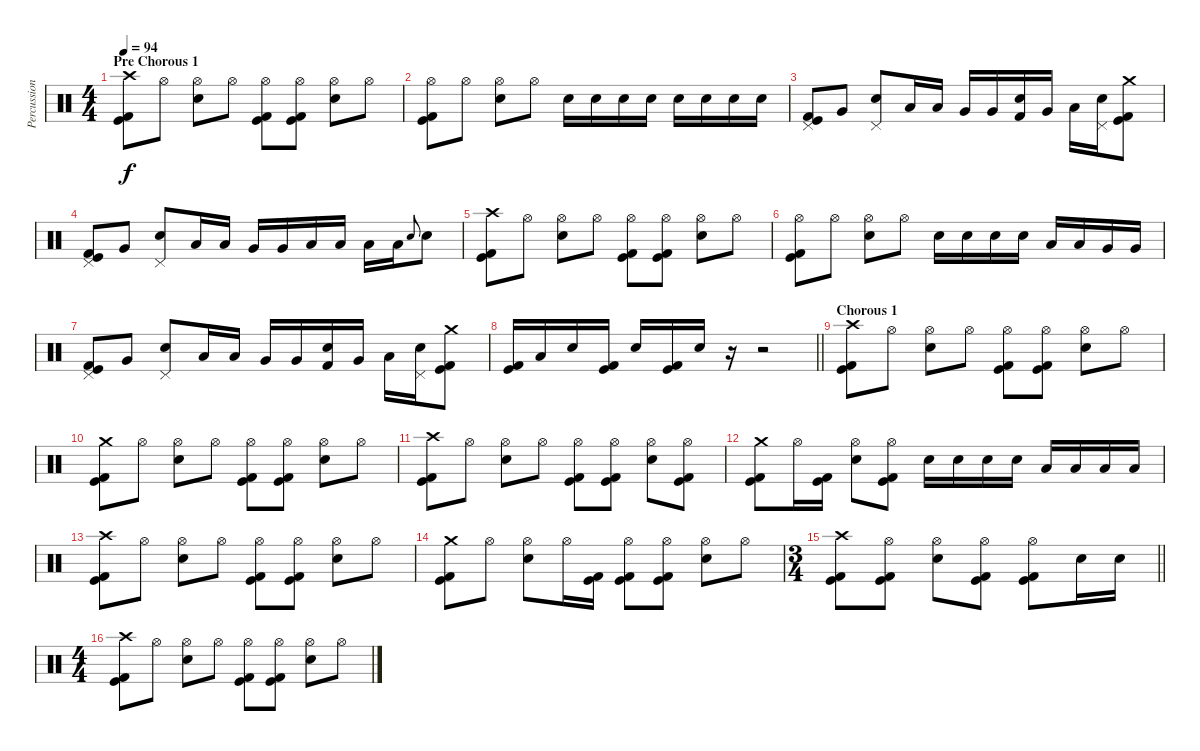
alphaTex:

\track ("Percussion" "Percussion") {instrument percussion}
\staff {score}
\articulation defaults
\ts (4 4)
\section ("" "Pre Chorous 1")
\tempo 94
\clef neutral
\ks c
("Crash high (hit)" "Kick (hit)" "Kick (hit) 2").8{dy f} "Hi-Hat (open)".8 ("Hi-Hat (open)" "Electric Snare (hit)").8 "Hi-Hat (open)".8 ("Hi-Hat (open)" "Kick (hit)" "Kick (hit) 2").8 ("Hi-Hat (open)" "Kick (hit)" "Kick (hit) 2").8 ("Hi-Hat (open)" "Electric Snare (hit)").8 "Hi-Hat (open)".8 |
("Hi-Hat (open)" "Kick (hit)" "Kick (hit) 2").8 "Hi-Hat (open)".8 ("Hi-Hat (open)" "Electric Snare (hit)").8 "Hi-Hat (open)".8 "Electric Snare (hit)".16 "Electric Snare (hit)".16 "Electric Snare (hit)".16 "Electric Snare (hit)".16 "Electric Snare (hit)".16 "Electric Snare (hit)".16 "Electric Snare (hit)".16 "Electric Snare (hit)".16 |
("Pedal Hi-Hat (hit)" "Kick (hit)" "Kick (hit) 2").8 "Very Low Tom (hit)".8 ("Pedal Hi-Hat (hit)" "Electric Snare (hit)").8 "Low Tom (hit)".16 "Low Tom (hit)".16 "Very Low Tom (hit)".16 "Very Low Tom (hit)".16 ("Electric Snare (hit)" "Kick (hit) 2").16 "Very Low Tom (hit)".16 "Low Floor Tom (hit)".16 ("Pedal Hi-Hat (hit)" "Electric Snare (hit)").16 ("Crash medium (hit)" "Kick (hit)" "Kick (hit) 2").8 |
("Pedal Hi-Hat (hit)" "Kick (hit)" "Kick (hit) 2").8 "Very Low Tom (hit)".8 ("Pedal Hi-Hat (hit)" "Electric Snare (hit)").8 "Low Tom (hit)".16 "Low Tom (hit)".16 "Very Low Tom (hit)".16 "Very Low Tom (hit)".16 "Low Floor Tom (hit)".16 "Low Floor Tom (hit)".16 "Low Tom (hit)".16 "Low Tom (hit)".16 "Electric Snare (hit)".8{gr onbeat} "Electric Snare (hit)".8 |
("Crash high (hit)" "Kick (hit)" "Kick (hit) 2").8 "Hi-Hat (open)".8 ("Hi-Hat (open)" "Electric Snare (hit)").8 "Hi-Hat (open)".8 ("Hi-Hat (open)" "Kick (hit)" "Kick (hit) 2").8 ("Hi-Hat (open)" "Kick (hit)" "Kick (hit) 2").8 ("Hi-Hat (open)" "Electric Snare (hit)").8 "Hi-Hat (open)".8 |
("Hi-Hat (open)" "Kick (hit)" "Kick (hit) 2").8 "Hi-Hat (open)".8 ("Hi-Hat (open)" "Electric Snare (hit)").8 "Hi-Hat (open)".8 "Electric Snare (hit)".16 "Electric Snare (hit)".16 "Electric Snare (hit)".16 "Electric Snare (hit)".16 "Low Tom (hit)".16 "Low Tom (hit)".16 "Very Low Tom (hit)".16 "Very Low Tom (hit)".16 |
("Pedal Hi-Hat (hit)" "Kick (hit)" "Kick (hit) 2").8 "Very Low Tom (hit)".8 ("Pedal Hi-Hat (hit)" "Electric Snare (hit)").8 "Low Tom (hit)".16 "Low Tom (hit)".16 "Very Low Tom (hit)".16 "Very Low Tom (hit)".16 ("Electric Snare (hit)" "Kick (hit) 2").16 "Very Low Tom (hit)".16 "Low Floor Tom (hit)".16 ("Pedal Hi-Hat (hit)" "Electric Snare (hit)").16 ("Crash medium (hit)" "Kick (hit)" "Kick (hit) 2").8 |
\barLineRight lightlight
("Kick (hit)" "Kick (hit) 2").16 "Low Tom (hit)".16 "Electric Snare (hit)".16 ("Kick (hit)" "Kick (hit) 2").16 "Electric Snare (hit)".16 ("Kick (hit)" "Kick (hit) 2").16 "Electric Snare (hit)".16 r.16 r.2 |
\section ("" "Chorous 1")
("Crash high (hit)" "Kick (hit)" "Kick (hit) 2").8 "Hi-Hat (open)".8 ("Hi-Hat (open)" "Electric Snare (hit)").8 "Hi-Hat (open)".8 ("Hi-Hat (open)" "Kick (hit)" "Kick (hit) 2").8 ("Hi-Hat (open)" "Kick (hit)" "Kick (hit) 2").8 ("Hi-Hat (open)" "Electric Snare (hit)").8 "Hi-Hat (open)".8 |
("Crash medium (hit)" "Kick (hit)" "Kick (hit) 2").8 "Hi-Hat (open)".8 ("Hi-Hat (open)" "Electric Snare (hit)").8 "Hi-Hat (open)".8 ("Hi-Hat (open)" "Kick (hit)" "Kick (hit) 2").8 ("Hi-Hat (open)" "Kick (hit)" "Kick (hit) 2").8 ("Hi-Hat (open)" "Electric Snare (hit)").8 "Hi-Hat (open)".8 |
("Crash high (hit)" "Kick (hit)" "Kick (hit) 2").8 "Hi-Hat (open)".8 ("Hi-Hat (open)" "Electric Snare (hit)").8 "Hi-Hat (open)".8 ("Hi-Hat (open)" "Kick (hit)" "Kick (hit) 2").8 ("Hi-Hat (open)" "Kick (hit)" "Kick (hit) 2").8 ("Hi-Hat (open)" "Electric Snare (hit)").8 ("Hi-Hat (open)" "Kick (hit)" "Kick (hit) 2").8 |
("Crash medium (hit)" "Kick (hit)" "Kick (hit) 2").8 "Hi-Hat (open)".16 ("Kick (hit)" "Kick (hit) 2").16 ("Hi-Hat (open)" "Electric Snare (hit)").8 ("Hi-Hat (open)" "Kick (hit)" "Kick (hit) 2").8 "Electric Snare (hit)".16 "Electric Snare (hit)".16 "Electric Snare (hit)".16 "Electric Snare (hit)".16 "Low Tom (hit)".16 "Low Tom (hit)".16 "Low Tom (hit)".16 "Low Tom (hit)".16 |
("Crash high (hit)" "Kick (hit)" "Kick (hit) 2").8 "Hi-Hat (open)".8 ("Hi-Hat (open)" "Electric Snare (hit)").8 "Hi-Hat (open)".8 ("Hi-Hat (open)" "Kick (hit)" "Kick (hit) 2").8 ("Hi-Hat (open)" "Kick (hit)" "Kick (hit) 2").8 ("Hi-Hat (open)" "Electric Snare (hit)").8 "Hi-Hat (open)".8 |
("Crash medium (hit)" "Kick (hit)" "Kick (hit) 2").8 "Hi-Hat (open)".8 ("Hi-Hat (open)" "Electric Snare (hit)").8 "Hi-Hat (open)".16 ("Kick (hit)" "Kick (hit) 2").16 ("Hi-Hat (open)" "Kick (hit)" "Kick (hit) 2").8 ("Hi-Hat (open)" "Kick (hit)" "Kick (hit) 2").8 ("Hi-Hat (open)" "Electric Snare (hit)").8 "Hi-Hat (open)".8 |
\ts (3 4)
\barLineRight lightlight
("Crash high (hit)" "Kick (hit)" "Kick (hit) 2").8 ("Hi-Hat (open)" "Kick (hit)" "Kick (hit) 2").8 ("Hi-Hat (open)" "Electric Snare (hit)").8 ("Hi-Hat (open)" "Kick (hit)" "Kick (hit) 2").8 ("Hi-Hat (open)" "Kick (hit)" "Kick (hit) 2").8 "Electric Snare (hit)".16 "Electric Snare (hit)".16 |
\ts (4 4)
\section ("" "")
("Crash high (hit)" "Kick (hit)" "Kick (hit) 2").8 "Hi-Hat (open)".8 ("Hi-Hat (open)" "Electric Snare (hit)").8 "Hi-Hat (open)".8 ("Hi-Hat (open)" "Kick (hit)" "Kick (hit) 2").8 ("Hi-Hat (open)" "Kick (hit)" "Kick (hit) 2").8 ("Hi-Hat (open)" "Electric Snare (hit)").8 "Hi-Hat (open)".8
